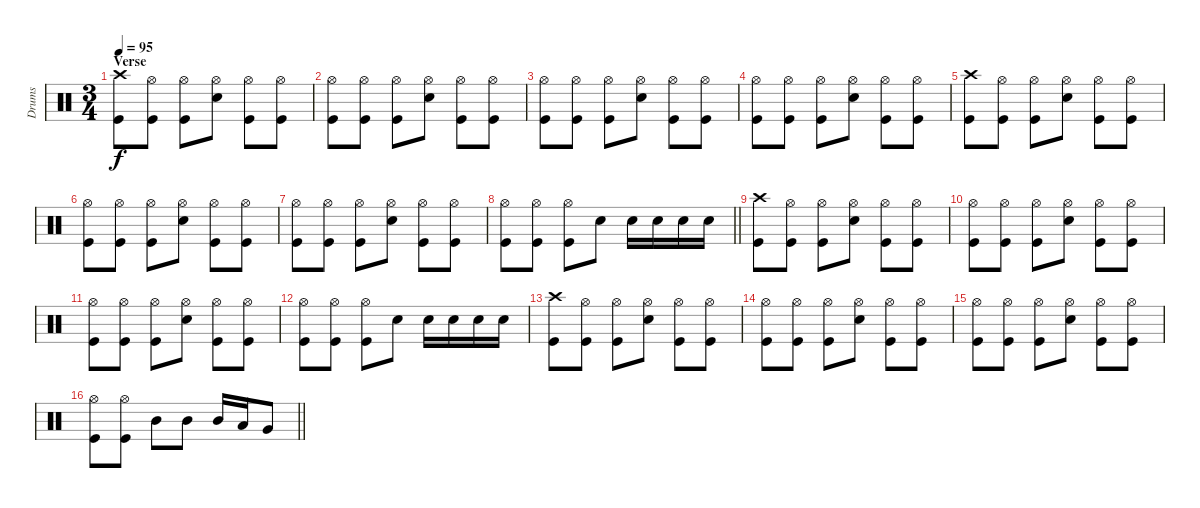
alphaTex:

\track ("Drums" "Drums") {instrument percussion}
\staff {score}
\articulation defaults
\ts (3 4)
\section ("" "Verse")
\tempo 95
\clef neutral
\ks c
("Crash high (hit)" "Kick (hit)").8{dy f} ("Hi-Hat (open)" "Kick (hit)").8 ("Hi-Hat (open)" "Kick (hit)").8 ("Hi-Hat (open)" "Electric Snare (hit)").8 ("Hi-Hat (open)" "Kick (hit)").8 ("Hi-Hat (open)" "Kick (hit)").8 |
("Hi-Hat (open)" "Kick (hit)").8 ("Hi-Hat (open)" "Kick (hit)").8 ("Hi-Hat (open)" "Kick (hit)").8 ("Hi-Hat (open)" "Electric Snare (hit)").8 ("Hi-Hat (open)" "Kick (hit)").8 ("Hi-Hat (open)" "Kick (hit)").8 |
("Hi-Hat (open)" "Kick (hit)").8 ("Hi-Hat (open)" "Kick (hit)").8 ("Hi-Hat (open)" "Kick (hit)").8 ("Hi-Hat (open)" "Electric Snare (hit)").8 ("Hi-Hat (open)" "Kick (hit)").8 ("Hi-Hat (open)" "Kick (hit)").8 |
("Hi-Hat (open)" "Kick (hit)").8 ("Hi-Hat (open)" "Kick (hit)").8 ("Hi-Hat (open)" "Kick (hit)").8 ("Hi-Hat (open)" "Electric Snare (hit)").8 ("Hi-Hat (open)" "Kick (hit)").8 ("Hi-Hat (open)" "Kick (hit)").8 |
("Crash high (hit)" "Kick (hit)").8 ("Hi-Hat (open)" "Kick (hit)").8 ("Hi-Hat (open)" "Kick (hit)").8 ("Hi-Hat (open)" "Electric Snare (hit)").8 ("Hi-Hat (open)" "Kick (hit)").8 ("Hi-Hat (open)" "Kick (hit)").8 |
("Hi-Hat (open)" "Kick (hit)").8 ("Hi-Hat (open)" "Kick (hit)").8 ("Hi-Hat (open)" "Kick (hit)").8 ("Hi-Hat (open)" "Electric Snare (hit)").8 ("Hi-Hat (open)" "Kick (hit)").8 ("Hi-Hat (open)" "Kick (hit)").8 |
("Hi-Hat (open)" "Kick (hit)").8 ("Hi-Hat (open)" "Kick (hit)").8 ("Hi-Hat (open)" "Kick (hit)").8 ("Hi-Hat (open)" "Electric Snare (hit)").8 ("Hi-Hat (open)" "Kick (hit)").8 ("Hi-Hat (open)" "Kick (hit)").8 |
\barLineRight lightlight
("Hi-Hat (open)" "Kick (hit)").8 ("Hi-Hat (open)" "Kick (hit)").8 ("Hi-Hat (open)" "Kick (hit)").8 "Electric Snare (hit)".8 "Electric Snare (hit)".16 "Electric Snare (hit)".16 "Electric Snare (hit)".16 "Electric Snare (hit)".16 |
("Crash high (hit)" "Kick (hit)").8 ("Hi-Hat (open)" "Kick (hit)").8 ("Hi-Hat (open)" "Kick (hit)").8 ("Hi-Hat (open)" "Electric Snare (hit)").8 ("Hi-Hat (open)" "Kick (hit)").8 ("Hi-Hat (open)" "Kick (hit)").8 |
("Hi-Hat (open)" "Kick (hit)").8 ("Hi-Hat (open)" "Kick (hit)").8 ("Hi-Hat (open)" "Kick (hit)").8 ("Hi-Hat (open)" "Electric Snare (hit)").8 ("Hi-Hat (open)" "Kick (hit)").8 ("Hi-Hat (open)" "Kick (hit)").8 |
("Hi-Hat (open)" "Kick (hit)").8 ("Hi-Hat (open)" "Kick (hit)").8 ("Hi-Hat (open)" "Kick (hit)").8 ("Hi-Hat (open)" "Electric Snare (hit)").8 ("Hi-Hat (open)" "Kick (hit)").8 ("Hi-Hat (open)" "Kick (hit)").8 |
("Hi-Hat (open)" "Kick (hit)").8 ("Hi-Hat (open)" "Kick (hit)").8 ("Hi-Hat (open)" "Kick (hit)").8 "Electric Snare (hit)".8 "Electric Snare (hit)".16 "Electric Snare (hit)".16 "Electric Snare (hit)".16 "Electric Snare (hit)".16 |
("Crash high (hit)" "Kick (hit)").8 ("Hi-Hat (open)" "Kick (hit)").8 ("Hi-Hat (open)" "Kick (hit)").8 ("Hi-Hat (open)" "Electric Snare (hit)").8 ("Hi-Hat (open)" "Kick (hit)").8 ("Hi-Hat (open)" "Kick (hit)").8 |
("Hi-Hat (open)" "Kick (hit)").8 ("Hi-Hat (open)" "Kick (hit)").8 ("Hi-Hat (open)" "Kick (hit)").8 ("Hi-Hat (open)" "Electric Snare (hit)").8 ("Hi-Hat (open)" "Kick (hit)").8 ("Hi-Hat (open)" "Kick (hit)").8 |
("Hi-Hat (open)" "Kick (hit)").8 ("Hi-Hat (open)" "Kick (hit)").8 ("Hi-Hat (open)" "Kick (hit)").8 ("Hi-Hat (open)" "Electric Snare (hit)").8 ("Hi-Hat (open)" "Kick (hit)").8 ("Hi-Hat (open)" "Kick (hit)").8 |
\barLineRight lightlight
("Hi-Hat (open)" "Kick (hit)").8 ("Hi-Hat (open)" "Kick (hit)").8 "Mid Tom (hit)".8 "Mid Tom (hit)".8 "Mid Tom (hit)".16 "Low Tom (hit)".16 "Very Low Tom (hit)".8
